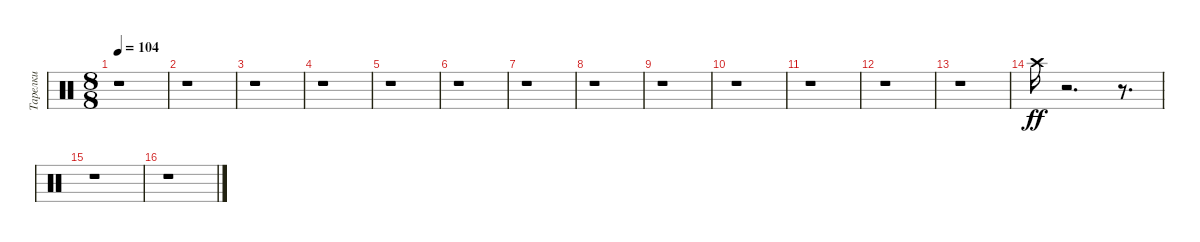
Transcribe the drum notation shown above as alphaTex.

\track ("Тарелки" "Тарелки") {instrument percussion}
\staff {score}
\articulation defaults
\ts (8 8)
\tempo 104
\clef neutral
\ks c
r.1{dy ff} |
r.1 |
r.1 |
r.1 |
r.1 |
r.1 |
r.1 |
r.1 |
r.1 |
r.1 |
r.1 |
r.1 |
r.1 |
"Crash high (hit)".16 r.2{d} r.8{d} |
r.1 |
r.1
